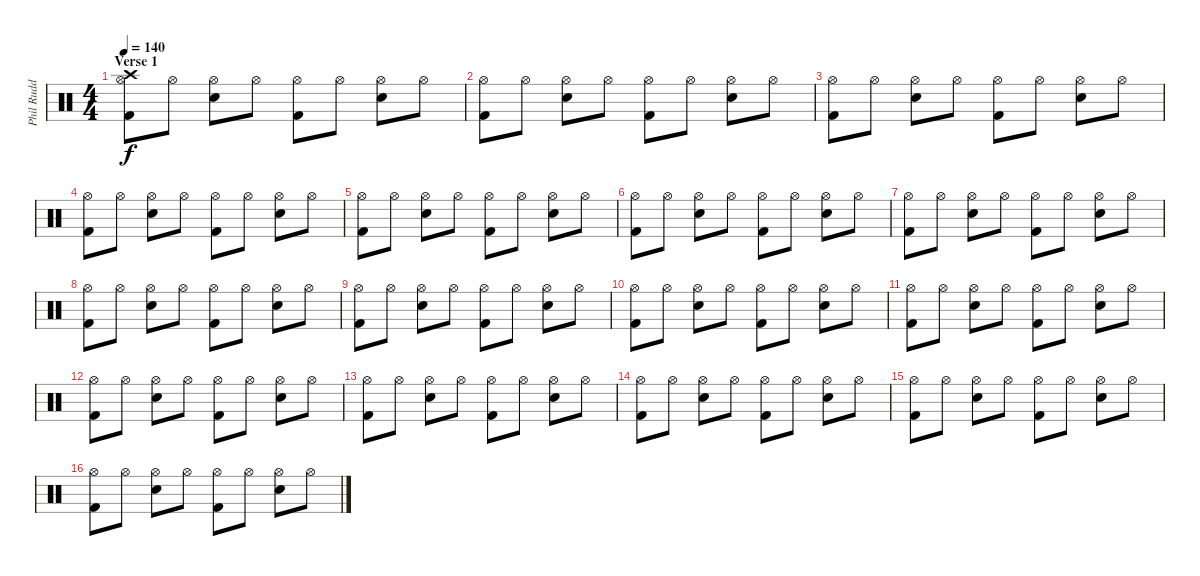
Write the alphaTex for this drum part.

\track ("Phil Rudd" "Phil Rudd") {instrument percussion}
\staff {score}
\articulation defaults
\ts (4 4)
\section ("" "Verse 1")
\tempo 140
\clef neutral
\ks c
("Crash high (hit)" "Hi-Hat (open)" "Kick (hit) 2").8{dy f} "Hi-Hat (open)".8 ("Hi-Hat (open)" "Snare (hit) 2").8 "Hi-Hat (open)".8 ("Hi-Hat (open)" "Kick (hit) 2").8 "Hi-Hat (open)".8 ("Hi-Hat (open)" "Snare (hit) 2").8 "Hi-Hat (open)".8 |
("Hi-Hat (open)" "Kick (hit) 2").8 "Hi-Hat (open)".8 ("Hi-Hat (open)" "Snare (hit) 2").8 "Hi-Hat (open)".8 ("Hi-Hat (open)" "Kick (hit) 2").8 "Hi-Hat (open)".8 ("Hi-Hat (open)" "Snare (hit) 2").8 "Hi-Hat (open)".8 |
("Hi-Hat (open)" "Kick (hit) 2").8 "Hi-Hat (open)".8 ("Hi-Hat (open)" "Snare (hit) 2").8 "Hi-Hat (open)".8 ("Hi-Hat (open)" "Kick (hit) 2").8 "Hi-Hat (open)".8 ("Hi-Hat (open)" "Snare (hit) 2").8 "Hi-Hat (open)".8 |
("Hi-Hat (open)" "Kick (hit) 2").8 "Hi-Hat (open)".8 ("Hi-Hat (open)" "Snare (hit) 2").8 "Hi-Hat (open)".8 ("Hi-Hat (open)" "Kick (hit) 2").8 "Hi-Hat (open)".8 ("Hi-Hat (open)" "Snare (hit) 2").8 "Hi-Hat (open)".8 |
("Hi-Hat (open)" "Kick (hit) 2").8 "Hi-Hat (open)".8 ("Hi-Hat (open)" "Snare (hit) 2").8 "Hi-Hat (open)".8 ("Hi-Hat (open)" "Kick (hit) 2").8 "Hi-Hat (open)".8 ("Hi-Hat (open)" "Snare (hit) 2").8 "Hi-Hat (open)".8 |
("Hi-Hat (open)" "Kick (hit) 2").8 "Hi-Hat (open)".8 ("Hi-Hat (open)" "Snare (hit) 2").8 "Hi-Hat (open)".8 ("Hi-Hat (open)" "Kick (hit) 2").8 "Hi-Hat (open)".8 ("Hi-Hat (open)" "Snare (hit) 2").8 "Hi-Hat (open)".8 |
("Hi-Hat (open)" "Kick (hit) 2").8 "Hi-Hat (open)".8 ("Hi-Hat (open)" "Snare (hit) 2").8 "Hi-Hat (open)".8 ("Hi-Hat (open)" "Kick (hit) 2").8 "Hi-Hat (open)".8 ("Hi-Hat (open)" "Snare (hit) 2").8 "Hi-Hat (open)".8 |
("Hi-Hat (open)" "Kick (hit) 2").8 "Hi-Hat (open)".8 ("Hi-Hat (open)" "Snare (hit) 2").8 "Hi-Hat (open)".8 ("Hi-Hat (open)" "Kick (hit) 2").8 "Hi-Hat (open)".8 ("Hi-Hat (open)" "Snare (hit) 2").8 "Hi-Hat (open)".8 |
("Hi-Hat (open)" "Kick (hit) 2").8 "Hi-Hat (open)".8 ("Hi-Hat (open)" "Snare (hit) 2").8 "Hi-Hat (open)".8 ("Hi-Hat (open)" "Kick (hit) 2").8 "Hi-Hat (open)".8 ("Hi-Hat (open)" "Snare (hit) 2").8 "Hi-Hat (open)".8 |
("Hi-Hat (open)" "Kick (hit) 2").8 "Hi-Hat (open)".8 ("Hi-Hat (open)" "Snare (hit) 2").8 "Hi-Hat (open)".8 ("Hi-Hat (open)" "Kick (hit) 2").8 "Hi-Hat (open)".8 ("Hi-Hat (open)" "Snare (hit) 2").8 "Hi-Hat (open)".8 |
("Hi-Hat (open)" "Kick (hit) 2").8 "Hi-Hat (open)".8 ("Hi-Hat (open)" "Snare (hit) 2").8 "Hi-Hat (open)".8 ("Hi-Hat (open)" "Kick (hit) 2").8 "Hi-Hat (open)".8 ("Hi-Hat (open)" "Snare (hit) 2").8 "Hi-Hat (open)".8 |
("Hi-Hat (open)" "Kick (hit) 2").8 "Hi-Hat (open)".8 ("Hi-Hat (open)" "Snare (hit) 2").8 "Hi-Hat (open)".8 ("Hi-Hat (open)" "Kick (hit) 2").8 "Hi-Hat (open)".8 ("Hi-Hat (open)" "Snare (hit) 2").8 "Hi-Hat (open)".8 |
("Hi-Hat (open)" "Kick (hit) 2").8 "Hi-Hat (open)".8 ("Hi-Hat (open)" "Snare (hit) 2").8 "Hi-Hat (open)".8 ("Hi-Hat (open)" "Kick (hit) 2").8 "Hi-Hat (open)".8 ("Hi-Hat (open)" "Snare (hit) 2").8 "Hi-Hat (open)".8 |
("Hi-Hat (open)" "Kick (hit) 2").8 "Hi-Hat (open)".8 ("Hi-Hat (open)" "Snare (hit) 2").8 "Hi-Hat (open)".8 ("Hi-Hat (open)" "Kick (hit) 2").8 "Hi-Hat (open)".8 ("Hi-Hat (open)" "Snare (hit) 2").8 "Hi-Hat (open)".8 |
("Hi-Hat (open)" "Kick (hit) 2").8 "Hi-Hat (open)".8 ("Hi-Hat (open)" "Snare (hit) 2").8 "Hi-Hat (open)".8 ("Hi-Hat (open)" "Kick (hit) 2").8 "Hi-Hat (open)".8 ("Hi-Hat (open)" "Snare (hit) 2").8 "Hi-Hat (open)".8 |
("Hi-Hat (open)" "Kick (hit) 2").8 "Hi-Hat (open)".8 ("Hi-Hat (open)" "Snare (hit) 2").8 "Hi-Hat (open)".8 ("Hi-Hat (open)" "Kick (hit) 2").8 "Hi-Hat (open)".8 ("Hi-Hat (open)" "Snare (hit) 2").8 "Hi-Hat (open)".8
